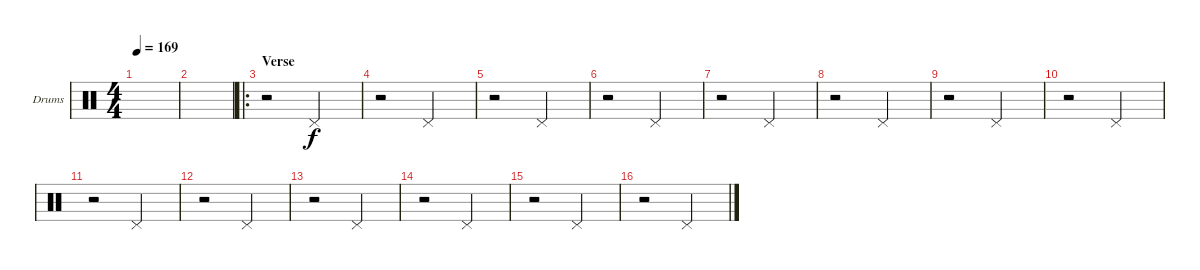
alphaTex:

\bracketExtendMode groupsimilarinstruments
\firstSystemTrackNameOrientation horizontal
\otherSystemsTrackNameOrientation horizontal
\track ("Drumkit" "Drums") {instrument percussion}
\staff {score}
\articulation defaults
\ts (4 4)
\tempo 169
\clef neutral
\ks c
|
|
\ro
\section ("" "Verse")
r.2 "Pedal Hi-Hat (hit)".2 |
r.2 "Pedal Hi-Hat (hit)".2 |
r.2 "Pedal Hi-Hat (hit)".2 |
r.2 "Pedal Hi-Hat (hit)".2 |
r.2 "Pedal Hi-Hat (hit)".2 |
r.2 "Pedal Hi-Hat (hit)".2 |
r.2 "Pedal Hi-Hat (hit)".2 |
r.2 "Pedal Hi-Hat (hit)".2 |
r.2 "Pedal Hi-Hat (hit)".2 |
r.2 "Pedal Hi-Hat (hit)".2 |
r.2 "Pedal Hi-Hat (hit)".2 |
r.2 "Pedal Hi-Hat (hit)".2 |
r.2 "Pedal Hi-Hat (hit)".2 |
r.2 "Pedal Hi-Hat (hit)".2
